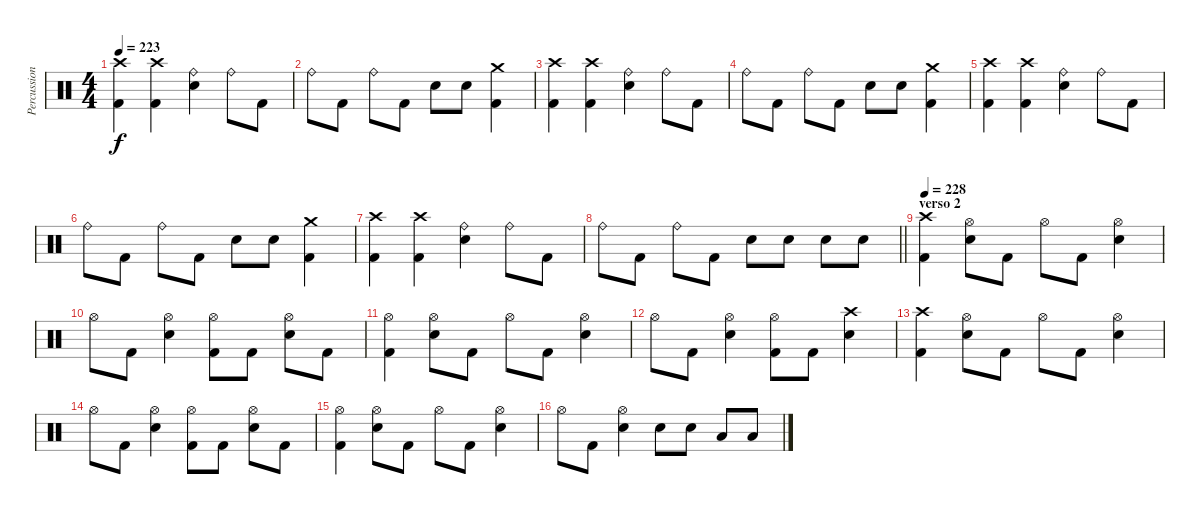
\track ("Percussion" "Percussion") {instrument percussion}
\staff {score}
\articulation defaults
\ts (4 4)
\tempo 223
\clef neutral
\ks c
("Crash high (hit)" "Kick (hit) 2").4{dy f} ("Crash high (hit)" "Kick (hit) 2").4 ("Ride (bell)" "Snare (hit) 2").4 "Ride (bell)".8 "Kick (hit) 2".8 |
"Ride (bell)".8 "Kick (hit) 2".8 "Ride (bell)".8 "Kick (hit) 2".8 "Snare (hit) 2".8 "Snare (hit) 2".8 ("Crash medium (hit)" "Kick (hit) 2").4 |
("Crash high (hit)" "Kick (hit) 2").4 ("Crash high (hit)" "Kick (hit) 2").4 ("Ride (bell)" "Snare (hit) 2").4 "Ride (bell)".8 "Kick (hit) 2".8 |
"Ride (bell)".8 "Kick (hit) 2".8 "Ride (bell)".8 "Kick (hit) 2".8 "Snare (hit) 2".8 "Snare (hit) 2".8 ("Crash medium (hit)" "Kick (hit) 2").4 |
("Crash high (hit)" "Kick (hit) 2").4 ("Crash high (hit)" "Kick (hit) 2").4 ("Ride (bell)" "Snare (hit) 2").4 "Ride (bell)".8 "Kick (hit) 2".8 |
"Ride (bell)".8 "Kick (hit) 2".8 "Ride (bell)".8 "Kick (hit) 2".8 "Snare (hit) 2".8 "Snare (hit) 2".8 ("Crash medium (hit)" "Kick (hit) 2").4 |
("Crash high (hit)" "Kick (hit) 2").4 ("Crash high (hit)" "Kick (hit) 2").4 ("Ride (bell)" "Snare (hit) 2").4 "Ride (bell)".8 "Kick (hit) 2".8 |
\barLineRight lightlight "Ride (bell)".8 "Kick (hit) 2".8 "Ride (bell)".8 "Kick (hit) 2".8 "Snare (hit) 2".8 "Snare (hit) 2".8 "Snare (hit) 2".8 "Snare (hit) 2".8
|
\section ("" "verso 2")
\tempo 228
("Crash high (hit)" "Kick (hit) 2").4 ("Hi-Hat (open)" "Snare (hit) 2").8 "Kick (hit) 2".8 "Hi-Hat (open)".8 "Kick (hit) 2".8 ("Hi-Hat (open)" "Snare (hit) 2").4 |
"Hi-Hat (open)".8 "Kick (hit) 2".8 ("Hi-Hat (open)" "Snare (hit) 2").4 ("Hi-Hat (open)" "Kick (hit) 2").8 "Kick (hit) 2".8 ("Hi-Hat (open)" "Snare (hit) 2").8 "Kick (hit) 2".8 |
("Hi-Hat (open)" "Kick (hit) 2").4 ("Hi-Hat (open)" "Snare (hit) 2").8 "Kick (hit) 2".8 "Hi-Hat (open)".8 "Kick (hit) 2".8 ("Hi-Hat (open)" "Snare (hit) 2").4 |
"Hi-Hat (open)".8 "Kick (hit) 2".8 ("Hi-Hat (open)" "Snare (hit) 2").4 ("Hi-Hat (open)" "Kick (hit) 2").8 "Kick (hit) 2".8 ("Crash high (hit)" "Snare (hit) 2").4 |
("Crash high (hit)" "Kick (hit) 2").4 ("Hi-Hat (open)" "Snare (hit) 2").8 "Kick (hit) 2".8 "Hi-Hat (open)".8 "Kick (hit) 2".8 ("Hi-Hat (open)" "Snare (hit) 2").4 |
"Hi-Hat (open)".8 "Kick (hit) 2".8 ("Hi-Hat (open)" "Snare (hit) 2").4 ("Hi-Hat (open)" "Kick (hit) 2").8 "Kick (hit) 2".8 ("Hi-Hat (open)" "Snare (hit) 2").8 "Kick (hit) 2".8 |
("Hi-Hat (open)" "Kick (hit) 2").4 ("Hi-Hat (open)" "Snare (hit) 2").8 "Kick (hit) 2".8 "Hi-Hat (open)".8 "Kick (hit) 2".8 ("Hi-Hat (open)" "Snare (hit) 2").4 |
"Hi-Hat (open)".8 "Kick (hit) 2".8 ("Hi-Hat (open)" "Snare (hit) 2").4 "Snare (hit) 2".8 "Snare (hit) 2".8 "Low Tom (hit)".8 "Low Tom (hit)".8
